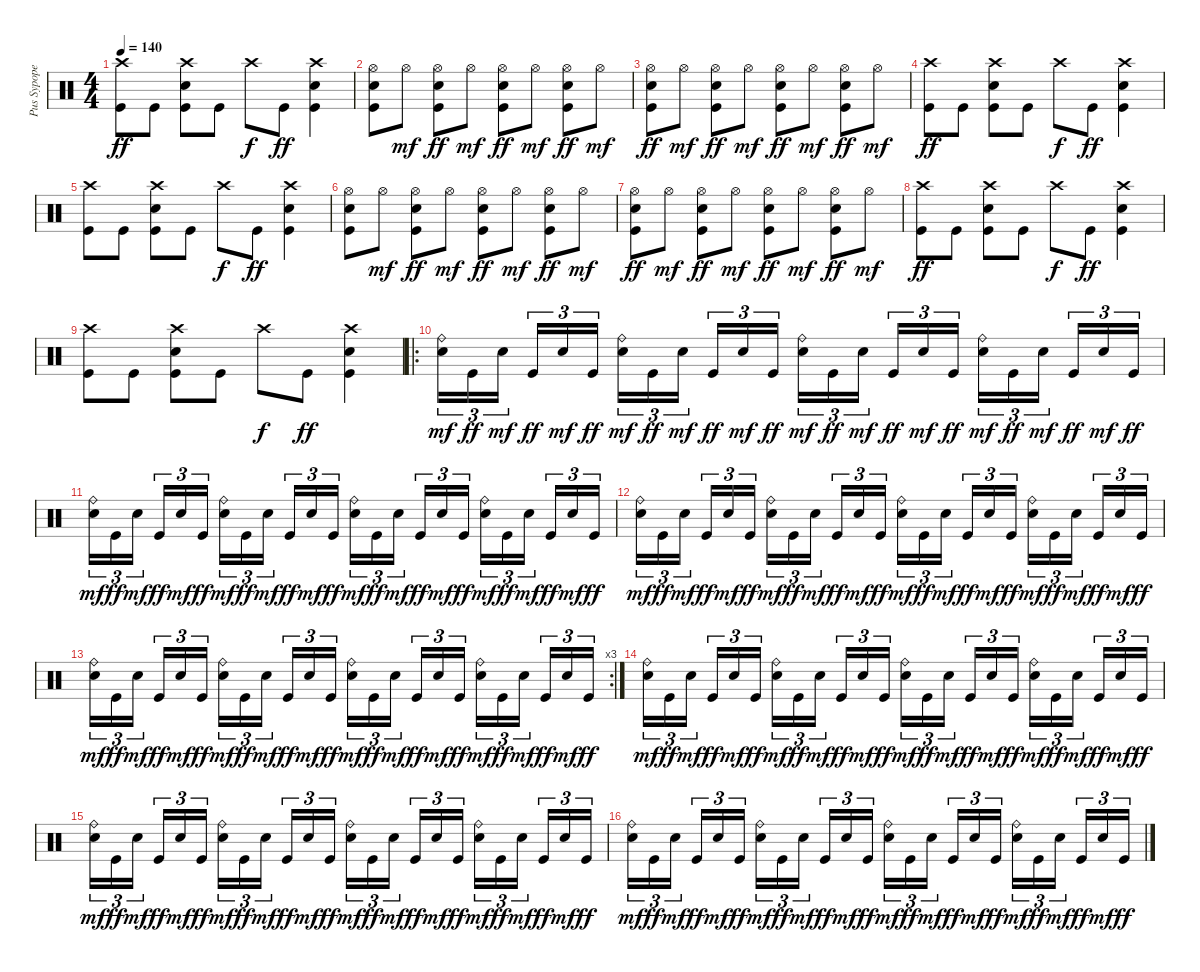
\track ("Pus Sypope" "Pus Sypope") {instrument percussion}
\staff {score}
\articulation defaults
\ts (4 4)
\tempo 140
\clef neutral
\ks c
("Crash high (hit)" "Kick (hit)").8{dy ff} "Kick (hit)".8 ("Crash high (hit)" "Electric Snare (hit)" "Kick (hit)").8 "Kick (hit)".8 "Crash high (hit)".8{dy f} "Kick (hit)".8{dy ff} ("Crash high (hit)" "Electric Snare (hit)" "Kick (hit)").4 |
("Hi-Hat (open)" "Electric Snare (hit)" "Kick (hit)").8 "Hi-Hat (open)".8{dy mf} ("Hi-Hat (open)" "Electric Snare (hit)" "Kick (hit)").8{dy ff} "Hi-Hat (open)".8{dy mf} ("Hi-Hat (open)" "Electric Snare (hit)" "Kick (hit)").8{dy ff} "Hi-Hat (open)".8{dy mf} ("Hi-Hat (open)" "Electric Snare (hit)" "Kick (hit)").8{dy ff} "Hi-Hat (open)".8{dy mf} |
("Hi-Hat (open)" "Electric Snare (hit)" "Kick (hit)").8{dy ff} "Hi-Hat (open)".8{dy mf} ("Hi-Hat (open)" "Electric Snare (hit)" "Kick (hit)").8{dy ff} "Hi-Hat (open)".8{dy mf} ("Hi-Hat (open)" "Electric Snare (hit)" "Kick (hit)").8{dy ff} "Hi-Hat (open)".8{dy mf} ("Hi-Hat (open)" "Electric Snare (hit)" "Kick (hit)").8{dy ff} "Hi-Hat (open)".8{dy mf} |
("Crash high (hit)" "Kick (hit)").8{dy ff} "Kick (hit)".8 ("Crash high (hit)" "Electric Snare (hit)" "Kick (hit)").8 "Kick (hit)".8 "Crash high (hit)".8{dy f} "Kick (hit)".8{dy ff} ("Crash high (hit)" "Electric Snare (hit)" "Kick (hit)").4 |
("Crash high (hit)" "Kick (hit)").8 "Kick (hit)".8 ("Crash high (hit)" "Electric Snare (hit)" "Kick (hit)").8 "Kick (hit)".8 "Crash high (hit)".8{dy f} "Kick (hit)".8{dy ff} ("Crash high (hit)" "Electric Snare (hit)" "Kick (hit)").4 |
("Hi-Hat (open)" "Electric Snare (hit)" "Kick (hit)").8 "Hi-Hat (open)".8{dy mf} ("Hi-Hat (open)" "Electric Snare (hit)" "Kick (hit)").8{dy ff} "Hi-Hat (open)".8{dy mf} ("Hi-Hat (open)" "Electric Snare (hit)" "Kick (hit)").8{dy ff} "Hi-Hat (open)".8{dy mf} ("Hi-Hat (open)" "Electric Snare (hit)" "Kick (hit)").8{dy ff} "Hi-Hat (open)".8{dy mf} |
("Hi-Hat (open)" "Electric Snare (hit)" "Kick (hit)").8{dy ff} "Hi-Hat (open)".8{dy mf} ("Hi-Hat (open)" "Electric Snare (hit)" "Kick (hit)").8{dy ff} "Hi-Hat (open)".8{dy mf} ("Hi-Hat (open)" "Electric Snare (hit)" "Kick (hit)").8{dy ff} "Hi-Hat (open)".8{dy mf} ("Hi-Hat (open)" "Electric Snare (hit)" "Kick (hit)").8{dy ff} "Hi-Hat (open)".8{dy mf} |
("Crash high (hit)" "Kick (hit)").8{dy ff} "Kick (hit)".8 ("Crash high (hit)" "Electric Snare (hit)" "Kick (hit)").8 "Kick (hit)".8 "Crash high (hit)".8{dy f} "Kick (hit)".8{dy ff} ("Crash high (hit)" "Electric Snare (hit)" "Kick (hit)").4 |
("Crash high (hit)" "Kick (hit)").8 "Kick (hit)".8 ("Crash high (hit)" "Electric Snare (hit)" "Kick (hit)").8 "Kick (hit)".8 "Crash high (hit)".8{dy f} "Kick (hit)".8{dy ff} ("Crash high (hit)" "Electric Snare (hit)" "Kick (hit)").4 |
\ro
("Ride (bell)" "Electric Snare (hit)").16{tu (3 2) dy mf} "Kick (hit)".16{tu (3 2) dy ff} "Electric Snare (hit)".16{tu (3 2) dy mf} "Kick (hit)".16{tu (3 2) dy ff} "Electric Snare (hit)".16{tu (3 2) dy mf} "Kick (hit)".16{tu (3 2) dy ff} ("Ride (bell)" "Electric Snare (hit)").16{tu (3 2) dy mf} "Kick (hit)".16{tu (3 2) dy ff} "Electric Snare (hit)".16{tu (3 2) dy mf} "Kick (hit)".16{tu (3 2) dy ff} "Electric Snare (hit)".16{tu (3 2) dy mf} "Kick (hit)".16{tu (3 2) dy ff} ("Ride (bell)" "Electric Snare (hit)").16{tu (3 2) dy mf} "Kick (hit)".16{tu (3 2) dy ff} "Electric Snare (hit)".16{tu (3 2) dy mf} "Kick (hit)".16{tu (3 2) dy ff} "Electric Snare (hit)".16{tu (3 2) dy mf} "Kick (hit)".16{tu (3 2) dy ff} ("Ride (bell)" "Electric Snare (hit)").16{tu (3 2) dy mf} "Kick (hit)".16{tu (3 2) dy ff} "Electric Snare (hit)".16{tu (3 2) dy mf} "Kick (hit)".16{tu (3 2) dy ff} "Electric Snare (hit)".16{tu (3 2) dy mf} "Kick (hit)".16{tu (3 2) dy ff} |
("Ride (bell)" "Electric Snare (hit)").16{tu (3 2) dy mf} "Kick (hit)".16{tu (3 2) dy ff} "Electric Snare (hit)".16{tu (3 2) dy mf} "Kick (hit)".16{tu (3 2) dy ff} "Electric Snare (hit)".16{tu (3 2) dy mf} "Kick (hit)".16{tu (3 2) dy ff} ("Ride (bell)" "Electric Snare (hit)").16{tu (3 2) dy mf} "Kick (hit)".16{tu (3 2) dy ff} "Electric Snare (hit)".16{tu (3 2) dy mf} "Kick (hit)".16{tu (3 2) dy ff} "Electric Snare (hit)".16{tu (3 2) dy mf} "Kick (hit)".16{tu (3 2) dy ff} ("Ride (bell)" "Electric Snare (hit)").16{tu (3 2) dy mf} "Kick (hit)".16{tu (3 2) dy ff} "Electric Snare (hit)".16{tu (3 2) dy mf} "Kick (hit)".16{tu (3 2) dy ff} "Electric Snare (hit)".16{tu (3 2) dy mf} "Kick (hit)".16{tu (3 2) dy ff} ("Ride (bell)" "Electric Snare (hit)").16{tu (3 2) dy mf} "Kick (hit)".16{tu (3 2) dy ff} "Electric Snare (hit)".16{tu (3 2) dy mf} "Kick (hit)".16{tu (3 2) dy ff} "Electric Snare (hit)".16{tu (3 2) dy mf} "Kick (hit)".16{tu (3 2) dy ff} |
("Ride (bell)" "Electric Snare (hit)").16{tu (3 2) dy mf} "Kick (hit)".16{tu (3 2) dy ff} "Electric Snare (hit)".16{tu (3 2) dy mf} "Kick (hit)".16{tu (3 2) dy ff} "Electric Snare (hit)".16{tu (3 2) dy mf} "Kick (hit)".16{tu (3 2) dy ff} ("Ride (bell)" "Electric Snare (hit)").16{tu (3 2) dy mf} "Kick (hit)".16{tu (3 2) dy ff} "Electric Snare (hit)".16{tu (3 2) dy mf} "Kick (hit)".16{tu (3 2) dy ff} "Electric Snare (hit)".16{tu (3 2) dy mf} "Kick (hit)".16{tu (3 2) dy ff} ("Ride (bell)" "Electric Snare (hit)").16{tu (3 2) dy mf} "Kick (hit)".16{tu (3 2) dy ff} "Electric Snare (hit)".16{tu (3 2) dy mf} "Kick (hit)".16{tu (3 2) dy ff} "Electric Snare (hit)".16{tu (3 2) dy mf} "Kick (hit)".16{tu (3 2) dy ff} ("Ride (bell)" "Electric Snare (hit)").16{tu (3 2) dy mf} "Kick (hit)".16{tu (3 2) dy ff} "Electric Snare (hit)".16{tu (3 2) dy mf} "Kick (hit)".16{tu (3 2) dy ff} "Electric Snare (hit)".16{tu (3 2) dy mf} "Kick (hit)".16{tu (3 2) dy ff} |
\rc 3
("Ride (bell)" "Electric Snare (hit)").16{tu (3 2) dy mf} "Kick (hit)".16{tu (3 2) dy ff} "Electric Snare (hit)".16{tu (3 2) dy mf} "Kick (hit)".16{tu (3 2) dy ff} "Electric Snare (hit)".16{tu (3 2) dy mf} "Kick (hit)".16{tu (3 2) dy ff} ("Ride (bell)" "Electric Snare (hit)").16{tu (3 2) dy mf} "Kick (hit)".16{tu (3 2) dy ff} "Electric Snare (hit)".16{tu (3 2) dy mf} "Kick (hit)".16{tu (3 2) dy ff} "Electric Snare (hit)".16{tu (3 2) dy mf} "Kick (hit)".16{tu (3 2) dy ff} ("Ride (bell)" "Electric Snare (hit)").16{tu (3 2) dy mf} "Kick (hit)".16{tu (3 2) dy ff} "Electric Snare (hit)".16{tu (3 2) dy mf} "Kick (hit)".16{tu (3 2) dy ff} "Electric Snare (hit)".16{tu (3 2) dy mf} "Kick (hit)".16{tu (3 2) dy ff} ("Ride (bell)" "Electric Snare (hit)").16{tu (3 2) dy mf} "Kick (hit)".16{tu (3 2) dy ff} "Electric Snare (hit)".16{tu (3 2) dy mf} "Kick (hit)".16{tu (3 2) dy ff} "Electric Snare (hit)".16{tu (3 2) dy mf} "Kick (hit)".16{tu (3 2) dy ff} |
("Ride (bell)" "Electric Snare (hit)").16{tu (3 2) dy mf} "Kick (hit)".16{tu (3 2) dy ff} "Electric Snare (hit)".16{tu (3 2) dy mf} "Kick (hit)".16{tu (3 2) dy ff} "Electric Snare (hit)".16{tu (3 2) dy mf} "Kick (hit)".16{tu (3 2) dy ff} ("Ride (bell)" "Electric Snare (hit)").16{tu (3 2) dy mf} "Kick (hit)".16{tu (3 2) dy ff} "Electric Snare (hit)".16{tu (3 2) dy mf} "Kick (hit)".16{tu (3 2) dy ff} "Electric Snare (hit)".16{tu (3 2) dy mf} "Kick (hit)".16{tu (3 2) dy ff} ("Ride (bell)" "Electric Snare (hit)").16{tu (3 2) dy mf} "Kick (hit)".16{tu (3 2) dy ff} "Electric Snare (hit)".16{tu (3 2) dy mf} "Kick (hit)".16{tu (3 2) dy ff} "Electric Snare (hit)".16{tu (3 2) dy mf} "Kick (hit)".16{tu (3 2) dy ff} ("Ride (bell)" "Electric Snare (hit)").16{tu (3 2) dy mf} "Kick (hit)".16{tu (3 2) dy ff} "Electric Snare (hit)".16{tu (3 2) dy mf} "Kick (hit)".16{tu (3 2) dy ff} "Electric Snare (hit)".16{tu (3 2) dy mf} "Kick (hit)".16{tu (3 2) dy ff} |
("Ride (bell)" "Electric Snare (hit)").16{tu (3 2) dy mf} "Kick (hit)".16{tu (3 2) dy ff} "Electric Snare (hit)".16{tu (3 2) dy mf} "Kick (hit)".16{tu (3 2) dy ff} "Electric Snare (hit)".16{tu (3 2) dy mf} "Kick (hit)".16{tu (3 2) dy ff} ("Ride (bell)" "Electric Snare (hit)").16{tu (3 2) dy mf} "Kick (hit)".16{tu (3 2) dy ff} "Electric Snare (hit)".16{tu (3 2) dy mf} "Kick (hit)".16{tu (3 2) dy ff} "Electric Snare (hit)".16{tu (3 2) dy mf} "Kick (hit)".16{tu (3 2) dy ff} ("Ride (bell)" "Electric Snare (hit)").16{tu (3 2) dy mf} "Kick (hit)".16{tu (3 2) dy ff} "Electric Snare (hit)".16{tu (3 2) dy mf} "Kick (hit)".16{tu (3 2) dy ff} "Electric Snare (hit)".16{tu (3 2) dy mf} "Kick (hit)".16{tu (3 2) dy ff} ("Ride (bell)" "Electric Snare (hit)").16{tu (3 2) dy mf} "Kick (hit)".16{tu (3 2) dy ff} "Electric Snare (hit)".16{tu (3 2) dy mf} "Kick (hit)".16{tu (3 2) dy ff} "Electric Snare (hit)".16{tu (3 2) dy mf} "Kick (hit)".16{tu (3 2) dy ff} |
("Ride (bell)" "Electric Snare (hit)").16{tu (3 2) dy mf} "Kick (hit)".16{tu (3 2) dy ff} "Electric Snare (hit)".16{tu (3 2) dy mf} "Kick (hit)".16{tu (3 2) dy ff} "Electric Snare (hit)".16{tu (3 2) dy mf} "Kick (hit)".16{tu (3 2) dy ff} ("Ride (bell)" "Electric Snare (hit)").16{tu (3 2) dy mf} "Kick (hit)".16{tu (3 2) dy ff} "Electric Snare (hit)".16{tu (3 2) dy mf} "Kick (hit)".16{tu (3 2) dy ff} "Electric Snare (hit)".16{tu (3 2) dy mf} "Kick (hit)".16{tu (3 2) dy ff} ("Ride (bell)" "Electric Snare (hit)").16{tu (3 2) dy mf} "Kick (hit)".16{tu (3 2) dy ff} "Electric Snare (hit)".16{tu (3 2) dy mf} "Kick (hit)".16{tu (3 2) dy ff} "Electric Snare (hit)".16{tu (3 2) dy mf} "Kick (hit)".16{tu (3 2) dy ff} ("Ride (bell)" "Electric Snare (hit)").16{tu (3 2) dy mf} "Kick (hit)".16{tu (3 2) dy ff} "Electric Snare (hit)".16{tu (3 2) dy mf} "Kick (hit)".16{tu (3 2) dy ff} "Electric Snare (hit)".16{tu (3 2) dy mf} "Kick (hit)".16{tu (3 2) dy ff}
